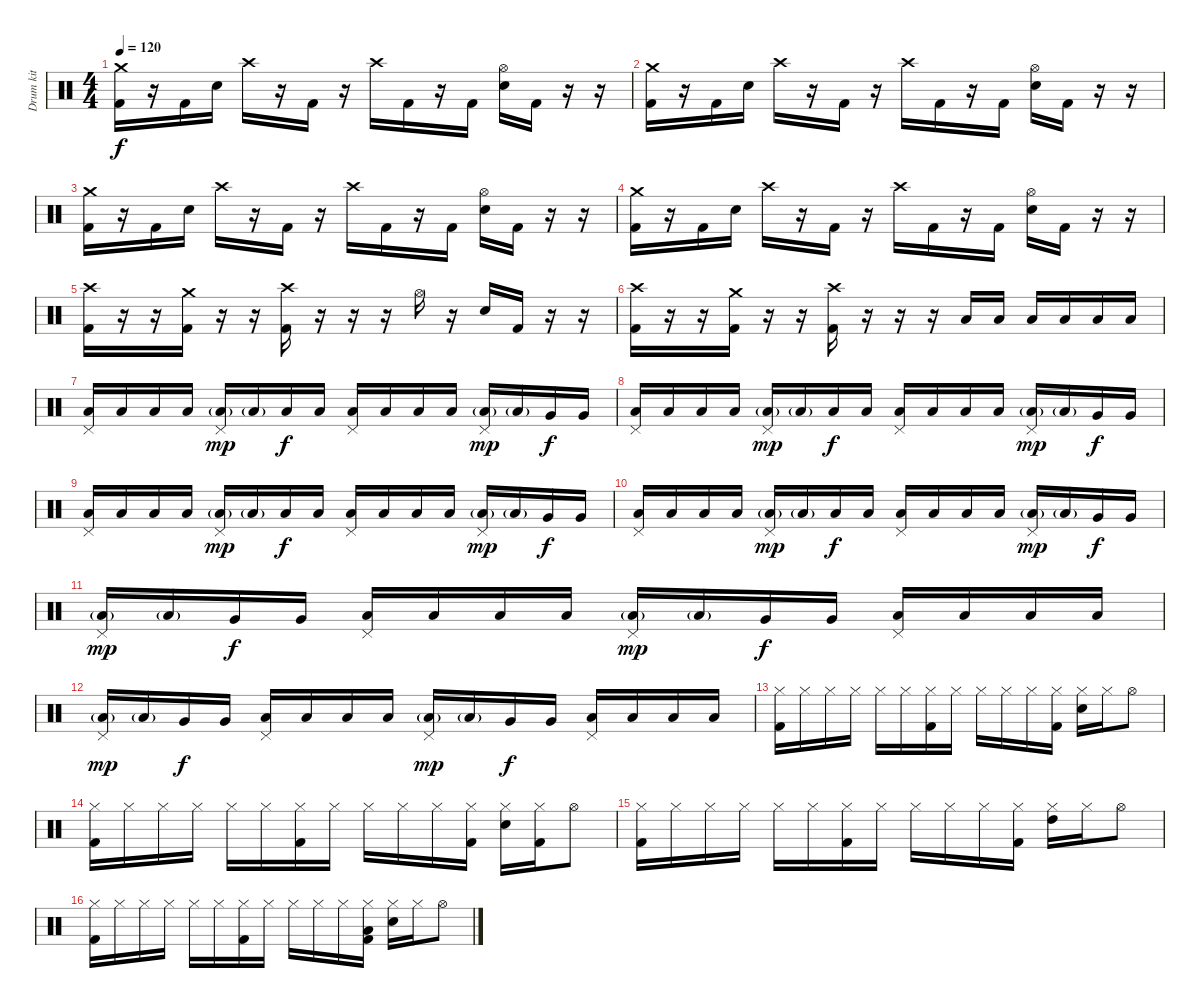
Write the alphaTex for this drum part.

\track ("Drum kit" "Drum kit") {instrument percussion}
\staff {score}
\articulation defaults
\ts (4 4)
\tempo 120
\clef neutral
\ks c
("Kick (hit) 2" "Crash medium (hit)").16{dy f} r.16 "Kick (hit) 2".16 "Snare (hit) 2".16 "Crash high (hit)".16 r.16 "Kick (hit) 2".16 r.16 "Crash high (hit)".16 "Kick (hit) 2".16 r.16 "Kick (hit) 2".16 ("Snare (hit) 2" "Hi-Hat (open)").16 "Kick (hit) 2".16 r.16 r.16 |
("Kick (hit) 2" "Crash medium (hit)").16 r.16 "Kick (hit) 2".16 "Snare (hit) 2".16 "Crash high (hit)".16 r.16 "Kick (hit) 2".16 r.16 "Crash high (hit)".16 "Kick (hit) 2".16 r.16 "Kick (hit) 2".16 ("Snare (hit) 2" "Hi-Hat (open)").16 "Kick (hit) 2".16 r.16 r.16 |
("Kick (hit) 2" "Crash medium (hit)").16 r.16 "Kick (hit) 2".16 "Snare (hit) 2".16 "Crash high (hit)".16 r.16 "Kick (hit) 2".16 r.16 "Crash high (hit)".16 "Kick (hit) 2".16 r.16 "Kick (hit) 2".16 ("Snare (hit) 2" "Hi-Hat (open)").16 "Kick (hit) 2".16 r.16 r.16 |
("Kick (hit) 2" "Crash medium (hit)").16 r.16 "Kick (hit) 2".16 "Snare (hit) 2".16 "Crash high (hit)".16 r.16 "Kick (hit) 2".16 r.16 "Crash high (hit)".16 "Kick (hit) 2".16 r.16 "Kick (hit) 2".16 ("Snare (hit) 2" "Hi-Hat (open)").16 "Kick (hit) 2".16 r.16 r.16 |
("Crash high (hit)" "Kick (hit) 2").16 r.16 r.16 ("Crash medium (hit)" "Kick (hit) 2").16 r.16 r.16 ("Crash high (hit)" "Kick (hit) 2").16 r.16 r.16 r.16 "Hi-Hat (open)".16 r.16 "Snare (hit) 2".16 "Kick (hit) 2".16 r.16 r.16 |
("Crash high (hit)" "Kick (hit) 2").16 r.16 r.16 ("Crash medium (hit)" "Kick (hit) 2").16 r.16 r.16 ("Crash high (hit)" "Kick (hit) 2").16 r.16 r.16 r.16 "Low Tom (hit)".16 "Low Tom (hit)".16 "Low Tom (hit)".16 "Low Tom (hit)".16 "Low Tom (hit)".16 "Low Tom (hit)".16 |
("Pedal Hi-Hat (hit)" "Low Tom (hit)").16 "Low Tom (hit)".16 "Low Tom (hit)".16 "Low Tom (hit)".16 ("Pedal Hi-Hat (hit)" "Low Tom (hit)"{g}).16{dy mp} "Low Tom (hit)"{g}.16 "Low Tom (hit)".16{dy f} "Low Tom (hit)".16 ("Pedal Hi-Hat (hit)" "Low Tom (hit)").16 "Low Tom (hit)".16 "Low Tom (hit)".16 "Low Tom (hit)".16 ("Pedal Hi-Hat (hit)" "Low Tom (hit)"{g}).16{dy mp} "Low Tom (hit)"{g}.16 "Very Low Tom (hit)".16{dy f} "Very Low Tom (hit)".16 |
("Pedal Hi-Hat (hit)" "Low Tom (hit)").16 "Low Tom (hit)".16 "Low Tom (hit)".16 "Low Tom (hit)".16 ("Pedal Hi-Hat (hit)" "Low Tom (hit)"{g}).16{dy mp} "Low Tom (hit)"{g}.16 "Low Tom (hit)".16{dy f} "Low Tom (hit)".16 ("Pedal Hi-Hat (hit)" "Low Tom (hit)").16 "Low Tom (hit)".16 "Low Tom (hit)".16 "Low Tom (hit)".16 ("Pedal Hi-Hat (hit)" "Low Tom (hit)"{g}).16{dy mp} "Low Tom (hit)"{g}.16 "Very Low Tom (hit)".16{dy f} "Very Low Tom (hit)".16 |
("Pedal Hi-Hat (hit)" "Low Tom (hit)").16 "Low Tom (hit)".16 "Low Tom (hit)".16 "Low Tom (hit)".16 ("Pedal Hi-Hat (hit)" "Low Tom (hit)"{g}).16{dy mp} "Low Tom (hit)"{g}.16 "Low Tom (hit)".16{dy f} "Low Tom (hit)".16 ("Pedal Hi-Hat (hit)" "Low Tom (hit)").16 "Low Tom (hit)".16 "Low Tom (hit)".16 "Low Tom (hit)".16 ("Pedal Hi-Hat (hit)" "Low Tom (hit)"{g}).16{dy mp} "Low Tom (hit)"{g}.16 "Very Low Tom (hit)".16{dy f} "Very Low Tom (hit)".16 |
("Pedal Hi-Hat (hit)" "Low Tom (hit)").16 "Low Tom (hit)".16 "Low Tom (hit)".16 "Low Tom (hit)".16 ("Pedal Hi-Hat (hit)" "Low Tom (hit)"{g}).16{dy mp} "Low Tom (hit)"{g}.16 "Low Tom (hit)".16{dy f} "Low Tom (hit)".16 ("Pedal Hi-Hat (hit)" "Low Tom (hit)").16 "Low Tom (hit)".16 "Low Tom (hit)".16 "Low Tom (hit)".16 ("Pedal Hi-Hat (hit)" "Low Tom (hit)"{g}).16{dy mp} "Low Tom (hit)"{g}.16 "Very Low Tom (hit)".16{dy f} "Very Low Tom (hit)".16 |
("Pedal Hi-Hat (hit)" "Low Tom (hit)"{g}).16{dy mp} "Low Tom (hit)"{g}.16 "Very Low Tom (hit)".16{dy f} "Very Low Tom (hit)".16 ("Pedal Hi-Hat (hit)" "Low Tom (hit)").16 "Low Tom (hit)".16 "Low Tom (hit)".16 "Low Tom (hit)".16 ("Pedal Hi-Hat (hit)" "Low Tom (hit)"{g}).16{dy mp} "Low Tom (hit)"{g}.16 "Very Low Tom (hit)".16{dy f} "Very Low Tom (hit)".16 ("Pedal Hi-Hat (hit)" "Low Tom (hit)").16 "Low Tom (hit)".16 "Low Tom (hit)".16 "Low Tom (hit)".16 |
("Pedal Hi-Hat (hit)" "Low Tom (hit)"{g}).16{dy mp} "Low Tom (hit)"{g}.16 "Very Low Tom (hit)".16{dy f} "Very Low Tom (hit)".16 ("Pedal Hi-Hat (hit)" "Low Tom (hit)").16 "Low Tom (hit)".16 "Low Tom (hit)".16 "Low Tom (hit)".16 ("Pedal Hi-Hat (hit)" "Low Tom (hit)"{g}).16{dy mp} "Low Tom (hit)"{g}.16 "Very Low Tom (hit)".16{dy f} "Very Low Tom (hit)".16 ("Pedal Hi-Hat (hit)" "Low Tom (hit)").16 "Low Tom (hit)".16 "Low Tom (hit)".16 "Low Tom (hit)".16 |
("Kick (hit) 2" "Hi-Hat (closed)").16 "Hi-Hat (closed)".16 "Hi-Hat (closed)".16 "Hi-Hat (closed)".16 "Hi-Hat (closed)".16 "Hi-Hat (closed)".16 ("Kick (hit) 2" "Hi-Hat (closed)").16 "Hi-Hat (closed)".16 "Hi-Hat (closed)".16 "Hi-Hat (closed)".16 "Hi-Hat (closed)".16 ("Kick (hit) 2" "Hi-Hat (closed)").16 ("Snare (hit) 2" "Hi-Hat (closed)").16 "Hi-Hat (closed)".16 "Hi-Hat (open)".8 |
("Kick (hit) 2" "Hi-Hat (closed)").16 "Hi-Hat (closed)".16 "Hi-Hat (closed)".16 "Hi-Hat (closed)".16 "Hi-Hat (closed)".16 "Hi-Hat (closed)".16 ("Kick (hit) 2" "Hi-Hat (closed)").16 "Hi-Hat (closed)".16 "Hi-Hat (closed)".16 "Hi-Hat (closed)".16 "Hi-Hat (closed)".16 ("Kick (hit) 2" "Hi-Hat (closed)").16 ("Snare (hit) 2" "Hi-Hat (closed)").16 ("Hi-Hat (closed)" "Kick (hit) 2").16 "Hi-Hat (open)".8 |
("Kick (hit) 2" "Hi-Hat (closed)").16 "Hi-Hat (closed)".16 "Hi-Hat (closed)".16 "Hi-Hat (closed)".16 "Hi-Hat (closed)".16 "Hi-Hat (closed)".16 ("Kick (hit) 2" "Hi-Hat (closed)").16 "Hi-Hat (closed)".16 "Hi-Hat (closed)".16 "Hi-Hat (closed)".16 "Hi-Hat (closed)".16 ("Kick (hit) 2" "Hi-Hat (closed)").16 ("High Tom (hit)" "Hi-Hat (closed)").16 "Hi-Hat (closed)".16 "Hi-Hat (open)".8 |
("Kick (hit) 2" "Hi-Hat (closed)").16 "Hi-Hat (closed)".16 "Hi-Hat (closed)".16 "Hi-Hat (closed)".16 "Hi-Hat (closed)".16 "Hi-Hat (closed)".16 ("Kick (hit) 2" "Hi-Hat (closed)").16 "Hi-Hat (closed)".16 "Hi-Hat (closed)".16 "Hi-Hat (closed)".16 "Hi-Hat (closed)".16 ("Kick (hit) 2" "Low Tom (hit)" "Hi-Hat (closed)").16 ("Snare (hit) 2" "Hi-Hat (closed)").16 "Hi-Hat (closed)".16 "Hi-Hat (open)".8
